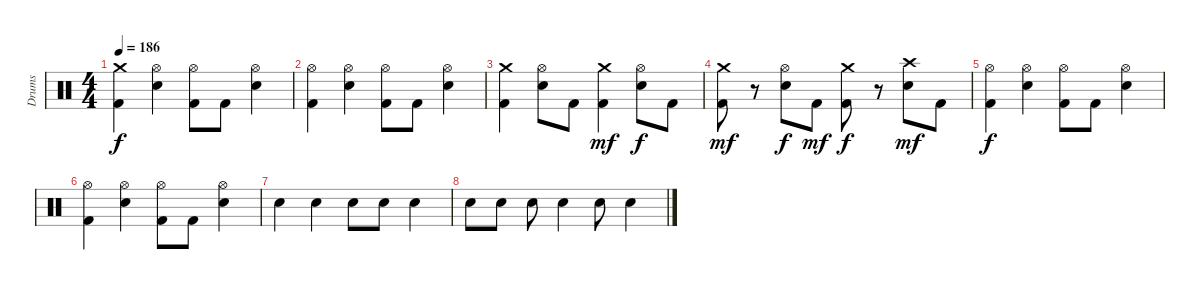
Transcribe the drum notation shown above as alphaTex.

\track ("Drums" "Drums") {instrument percussion}
\staff
\articulation defaults
\ts (4 4)
\tempo 186
\clef neutral
\ks c
("Crash medium (hit)" "Kick (hit) 2").4{dy f} ("Hi-Hat (open)" "Electric Snare (hit)").4 ("Hi-Hat (open)" "Kick (hit) 2").8 "Kick (hit) 2".8 ("Hi-Hat (open)" "Electric Snare (hit)").4 |
("Hi-Hat (open)" "Kick (hit) 2").4 ("Hi-Hat (open)" "Electric Snare (hit)").4 ("Hi-Hat (open)" "Kick (hit) 2").8 "Kick (hit) 2".8 ("Hi-Hat (open)" "Electric Snare (hit)").4 |
("Crash medium (hit)" "Kick (hit) 2").4 ("Hi-Hat (open)" "Electric Snare (hit)").8 "Kick (hit) 2".8 ("Crash medium (hit)" "Kick (hit) 2").4{dy mf} ("Hi-Hat (open)" "Electric Snare (hit)").8{dy f} "Kick (hit) 2".8 |
("Crash medium (hit)" "Kick (hit) 2").8{dy mf} r.8 ("Hi-Hat (open)" "Electric Snare (hit)").8{dy f} "Kick (hit) 2".8{dy mf} ("Crash medium (hit)" "Kick (hit) 2").8{dy f} r.8 ("Crash high (hit)" "Electric Snare (hit)").8{dy mf} "Kick (hit) 2".8 |
("Hi-Hat (open)" "Kick (hit) 2").4{dy f} ("Hi-Hat (open)" "Electric Snare (hit)").4 ("Hi-Hat (open)" "Kick (hit) 2").8 "Kick (hit) 2".8 ("Hi-Hat (open)" "Electric Snare (hit)").4 |
("Hi-Hat (open)" "Kick (hit) 2").4 ("Hi-Hat (open)" "Electric Snare (hit)").4 ("Hi-Hat (open)" "Kick (hit) 2").8 "Kick (hit) 2".8 ("Hi-Hat (open)" "Electric Snare (hit)").4 |
"Electric Snare (hit)".4 "Electric Snare (hit)".4 "Electric Snare (hit)".8 "Electric Snare (hit)".8 "Electric Snare (hit)".4 |
"Electric Snare (hit)".8 "Electric Snare (hit)".8 "Electric Snare (hit)".8 "Electric Snare (hit)".4 "Electric Snare (hit)".8 "Electric Snare (hit)".4
